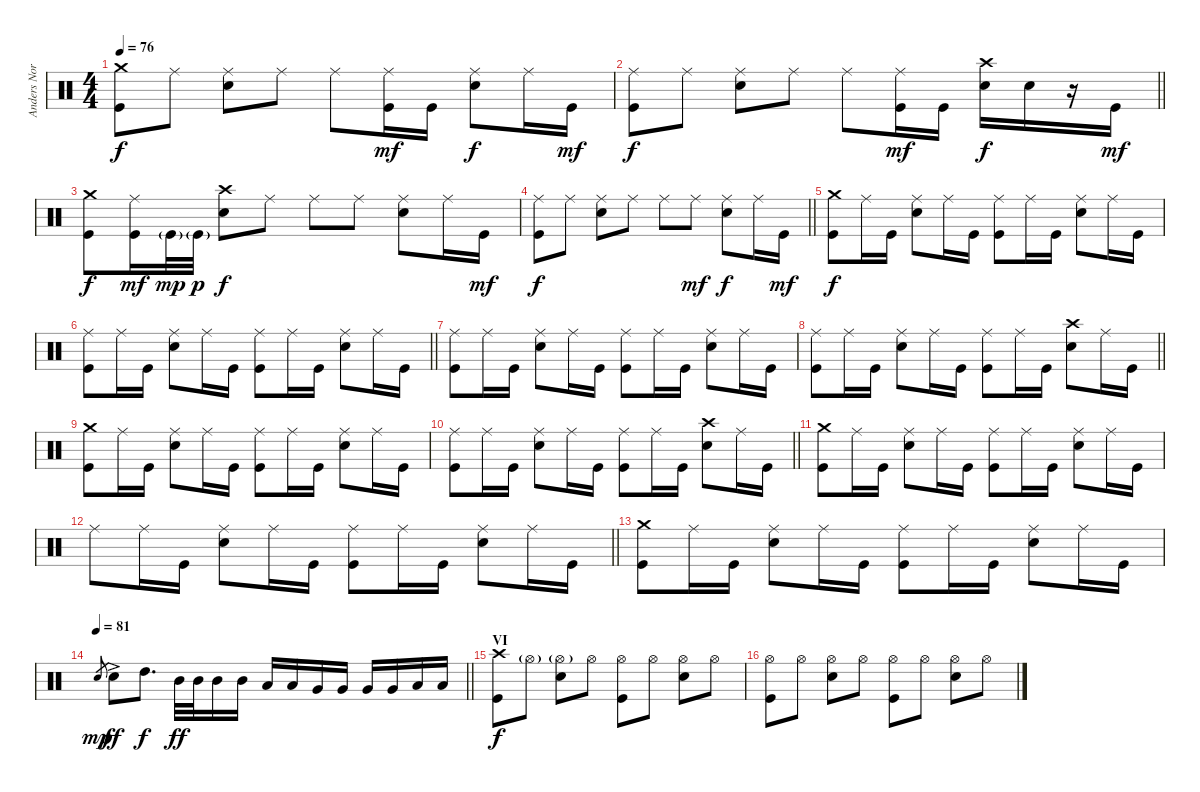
\track ("Anders Nordin - Drums" "Anders Nor") {instrument percussion}
\staff {score}
\articulation defaults
\ts (4 4)
\tempo 76
\clef neutral
\ks c
("Crash medium (hit)" "Kick (hit)").8{dy f} "Ride (middle)".8 ("Ride (middle)" "Snare (hit) 2").8 "Ride (middle)".8 "Ride (middle)".8 ("Ride (middle)" "Kick (hit)").16{dy mf} "Kick (hit)".16 ("Ride (middle)" "Snare (hit) 2").8{dy f} "Ride (middle)".16 "Kick (hit)".16{dy mf} |
\barLineRight lightlight
("Ride (middle)" "Kick (hit)").8{dy f} "Ride (middle)".8 ("Ride (middle)" "Snare (hit) 2").8 "Ride (middle)".8 "Ride (middle)".8 ("Ride (middle)" "Kick (hit)").16{dy mf} "Kick (hit)".16 ("Crash high (hit)" "Snare (hit) 2").16{dy f} "Snare (hit) 2".16 r.16 "Kick (hit)".16{dy mf} |
("Crash medium (hit)" "Kick (hit)").8{dy f} ("Ride (middle)" "Kick (hit)").16{dy mf} "Kick (hit)"{g}.32{dy mp} "Kick (hit)"{g}.32{dy p} ("Crash high (hit)" "Snare (hit) 2").8{dy f} "Ride (middle)".8 "Ride (middle)".8 "Ride (middle)".8 ("Ride (middle)" "Snare (hit) 2").8 "Ride (middle)".16 "Kick (hit)".16{dy mf} |
\barLineRight lightlight
("Ride (middle)" "Kick (hit)").8{dy f} "Ride (middle)".8 ("Ride (middle)" "Snare (hit) 2").8 "Ride (middle)".8 "Ride (middle)".8 "Ride (middle)".8{dy mf} ("Ride (middle)" "Snare (hit) 2").8{dy f} "Ride (middle)".16 "Kick (hit)".16{dy mf} |
("Crash medium (hit)" "Kick (hit)").8{dy f} "Ride (middle)".16 "Kick (hit)".16 ("Ride (middle)" "Snare (hit) 2").8 "Ride (middle)".16 "Kick (hit)".16 ("Ride (middle)" "Kick (hit)").8 "Ride (middle)".16 "Kick (hit)".16 ("Ride (middle)" "Snare (hit) 2").8 "Ride (middle)".16 "Kick (hit)".16 |
\barLineRight lightlight
("Ride (middle)" "Kick (hit)").8 "Ride (middle)".16 "Kick (hit)".16 ("Ride (middle)" "Snare (hit) 2").8 "Ride (middle)".16 "Kick (hit)".16 ("Ride (middle)" "Kick (hit)").8 "Ride (middle)".16 "Kick (hit)".16 ("Ride (middle)" "Snare (hit) 2").8 "Ride (middle)".16 "Kick (hit)".16 |
("Ride (middle)" "Kick (hit)").8 "Ride (middle)".16 "Kick (hit)".16 ("Ride (middle)" "Snare (hit) 2").8 "Ride (middle)".16 "Kick (hit)".16 ("Ride (middle)" "Kick (hit)").8 "Ride (middle)".16 "Kick (hit)".16 ("Ride (middle)" "Snare (hit) 2").8 "Ride (middle)".16 "Kick (hit)".16 |
\barLineRight lightlight
("Ride (middle)" "Kick (hit)").8 "Ride (middle)".16 "Kick (hit)".16 ("Ride (middle)" "Snare (hit) 2").8 "Ride (middle)".16 "Kick (hit)".16 ("Ride (middle)" "Kick (hit)").8 "Ride (middle)".16 "Kick (hit)".16 ("Crash high (hit)" "Snare (hit) 2").8 "Ride (middle)".16 "Kick (hit)".16 |
("Crash medium (hit)" "Kick (hit)").8 "Ride (middle)".16 "Kick (hit)".16 ("Ride (middle)" "Snare (hit) 2").8 "Ride (middle)".16 "Kick (hit)".16 ("Ride (middle)" "Kick (hit)").8 "Ride (middle)".16 "Kick (hit)".16 ("Ride (middle)" "Snare (hit) 2").8 "Ride (middle)".16 "Kick (hit)".16 |
\barLineRight lightlight
("Ride (middle)" "Kick (hit)").8 "Ride (middle)".16 "Kick (hit)".16 ("Ride (middle)" "Snare (hit) 2").8 "Ride (middle)".16 "Kick (hit)".16 ("Ride (middle)" "Kick (hit)").8 "Ride (middle)".16 "Kick (hit)".16 ("Crash high (hit)" "Snare (hit) 2").8 "Ride (middle)".16 "Kick (hit)".16 |
("Crash medium (hit)" "Kick (hit)").8 "Ride (middle)".16 "Kick (hit)".16 ("Ride (middle)" "Snare (hit) 2").8 "Ride (middle)".16 "Kick (hit)".16 ("Ride (middle)" "Kick (hit)").8 "Ride (middle)".16 "Kick (hit)".16 ("Ride (middle)" "Snare (hit) 2").8 "Ride (middle)".16 "Kick (hit)".16 |
\barLineRight lightlight "Ride (middle)".8 "Ride (middle)".16 "Kick (hit)".16
("Ride (middle)" "Snare (hit) 2").8 "Ride (middle)".16 "Kick (hit)".16 ("Ride (middle)" "Kick (hit)").8 "Ride (middle)".16 "Kick (hit)".16 ("Ride (middle)" "Snare (hit) 2").8 "Ride (middle)".16 "Kick (hit)".16 |
("Crash medium (hit)" "Kick (hit)").8 "Ride (middle)".16 "Kick (hit)".16 ("Ride (middle)" "Snare (hit) 2").8 "Ride (middle)".16 "Kick (hit)".16 ("Ride (middle)" "Kick (hit)").8 "Ride (middle)".16 "Kick (hit)".16 ("Ride (middle)" "Snare (hit) 2").8 "Ride (middle)".16 "Kick (hit)".16 |
\tempo 81
\barLineRight lightlight "Snare (hit) 2".8{gr dy mp} "Snare (hit) 2"{ac}.8{dy ff} "High Tom (hit)".8{d dy f} "Mid Tom (hit)".32{dy ff} "Mid Tom (hit)".32 "Mid Tom (hit)".16 "Mid Tom (hit)".16 "Low Tom (hit)".16 "Low Tom (hit)".16 "Very Low Tom (hit)".16 "Very Low Tom (hit)".16 "Very Low Tom (hit)".16 "Very Low Tom (hit)".16 "Low Floor Tom (hit)".16 "Low Floor Tom (hit)".16
|
\section ("" "VI")
("Crash high (hit)" "Kick (hit)").8{dy f} "Hi-Hat (open)"{g}.8 ("Hi-Hat (open)"{g} "Snare (hit) 2").8 "Hi-Hat (open)".8 ("Hi-Hat (open)" "Kick (hit)").8 "Hi-Hat (open)".8 ("Hi-Hat (open)" "Snare (hit) 2").8 "Hi-Hat (open)".8 |
("Hi-Hat (open)" "Kick (hit)").8 "Hi-Hat (open)".8 ("Hi-Hat (open)" "Snare (hit) 2").8 "Hi-Hat (open)".8 ("Hi-Hat (open)" "Kick (hit)").8 "Hi-Hat (open)".8 ("Hi-Hat (open)" "Snare (hit) 2").8 "Hi-Hat (open)".8
